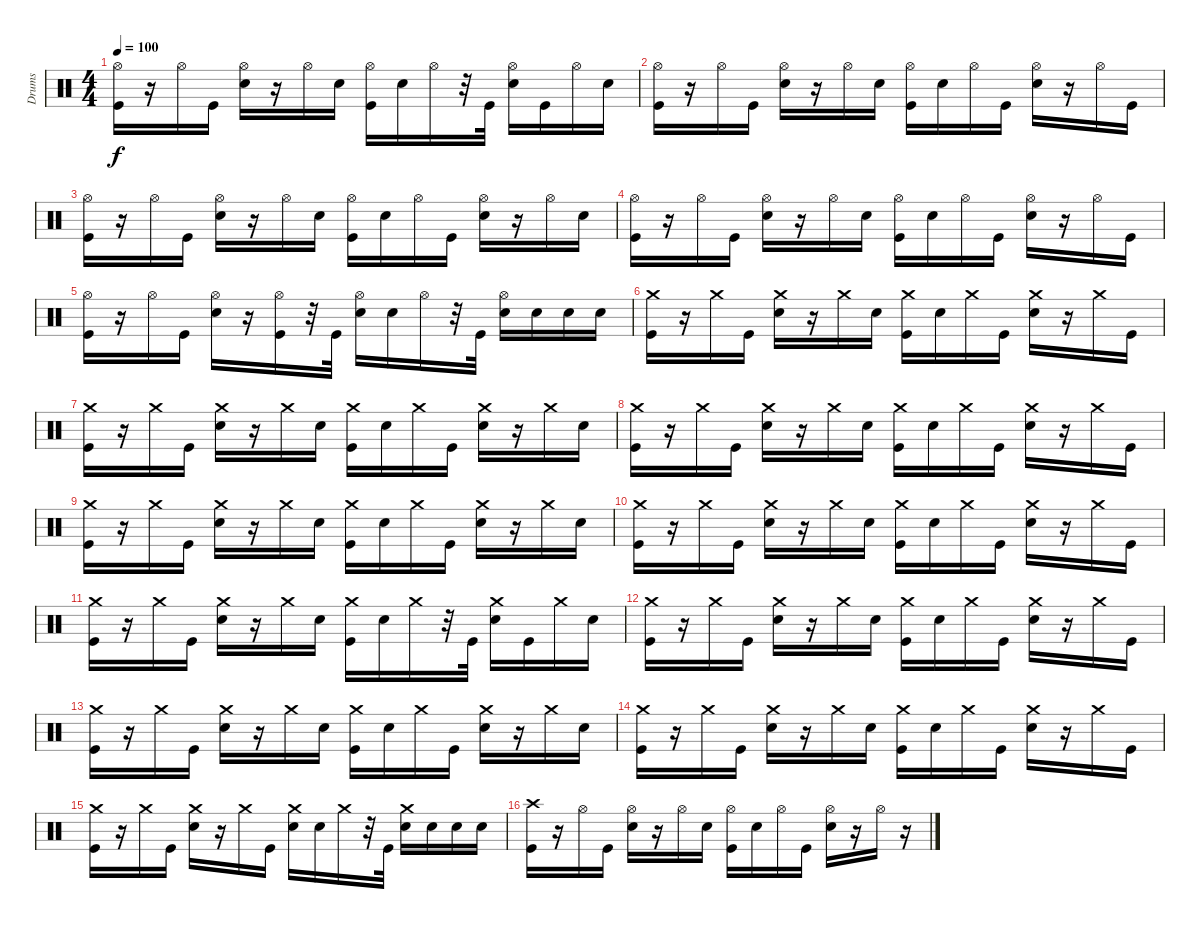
\track ("Drums" "Drums") {instrument percussion}
\staff {score}
\articulation defaults
\ts (4 4)
\tempo 100
\clef neutral
\ks c
("Hi-Hat (open)" "Kick (hit)").16{dy f} r.16 "Hi-Hat (open)".16 "Kick (hit)".16 ("Hi-Hat (open)" "Electric Snare (hit)").16 r.16 "Hi-Hat (open)".16 "Electric Snare (hit)".16 ("Hi-Hat (open)" "Kick (hit)").16 "Electric Snare (hit)".16 "Hi-Hat (open)".16 r.32 "Kick (hit)".32 ("Hi-Hat (open)" "Electric Snare (hit)").16 "Kick (hit)".16 "Hi-Hat (open)".16 "Electric Snare (hit)".16 |
("Hi-Hat (open)" "Kick (hit)").16 r.16 "Hi-Hat (open)".16 "Kick (hit)".16 ("Hi-Hat (open)" "Electric Snare (hit)").16 r.16 "Hi-Hat (open)".16 "Electric Snare (hit)".16 ("Hi-Hat (open)" "Kick (hit)").16 "Electric Snare (hit)".16 "Hi-Hat (open)".16 "Kick (hit)".16 ("Hi-Hat (open)" "Electric Snare (hit)").16 r.16 "Hi-Hat (open)".16 "Kick (hit)".16 |
("Hi-Hat (open)" "Kick (hit)").16 r.16 "Hi-Hat (open)".16 "Kick (hit)".16 ("Hi-Hat (open)" "Electric Snare (hit)").16 r.16 "Hi-Hat (open)".16 "Electric Snare (hit)".16 ("Hi-Hat (open)" "Kick (hit)").16 "Electric Snare (hit)".16 "Hi-Hat (open)".16 "Kick (hit)".16 ("Hi-Hat (open)" "Electric Snare (hit)").16 r.16 "Hi-Hat (open)".16 "Electric Snare (hit)".16 |
("Hi-Hat (open)" "Kick (hit)").16 r.16 "Hi-Hat (open)".16 "Kick (hit)".16 ("Hi-Hat (open)" "Electric Snare (hit)").16 r.16 "Hi-Hat (open)".16 "Electric Snare (hit)".16 ("Hi-Hat (open)" "Kick (hit)").16 "Electric Snare (hit)".16 "Hi-Hat (open)".16 "Kick (hit)".16 ("Hi-Hat (open)" "Electric Snare (hit)").16 r.16 "Hi-Hat (open)".16 "Kick (hit)".16 |
("Hi-Hat (open)" "Kick (hit)").16 r.16 "Hi-Hat (open)".16 "Kick (hit)".16 ("Hi-Hat (open)" "Electric Snare (hit)").16 r.16 ("Hi-Hat (open)" "Kick (hit)").16 r.32 "Kick (hit)".32 ("Hi-Hat (open)" "Electric Snare (hit)").16 "Electric Snare (hit)".16 "Hi-Hat (open)".16 r.32 "Kick (hit)".32 ("Hi-Hat (open)" "Electric Snare (hit)").16 "Electric Snare (hit)".16 "Electric Snare (hit)".16 "Electric Snare (hit)".16 |
("Crash medium (hit)" "Kick (hit)").16 r.16 "Crash medium (hit)".16 "Kick (hit)".16 ("Crash medium (hit)" "Electric Snare (hit)").16 r.16 "Crash medium (hit)".16 "Electric Snare (hit)".16 ("Crash medium (hit)" "Kick (hit)").16 "Electric Snare (hit)".16 "Crash medium (hit)".16 "Kick (hit)".16 ("Crash medium (hit)" "Electric Snare (hit)").16 r.16 "Crash medium (hit)".16 "Kick (hit)".16 |
("Crash medium (hit)" "Kick (hit)").16 r.16 "Crash medium (hit)".16 "Kick (hit)".16 ("Crash medium (hit)" "Electric Snare (hit)").16 r.16 "Crash medium (hit)".16 "Electric Snare (hit)".16 ("Crash medium (hit)" "Kick (hit)").16 "Electric Snare (hit)".16 "Crash medium (hit)".16 "Kick (hit)".16 ("Crash medium (hit)" "Electric Snare (hit)").16 r.16 "Crash medium (hit)".16 "Electric Snare (hit)".16 |
("Crash medium (hit)" "Kick (hit)").16 r.16 "Crash medium (hit)".16 "Kick (hit)".16 ("Crash medium (hit)" "Electric Snare (hit)").16 r.16 "Crash medium (hit)".16 "Electric Snare (hit)".16 ("Crash medium (hit)" "Kick (hit)").16 "Electric Snare (hit)".16 "Crash medium (hit)".16 "Kick (hit)".16 ("Crash medium (hit)" "Electric Snare (hit)").16 r.16 "Crash medium (hit)".16 "Kick (hit)".16 |
("Crash medium (hit)" "Kick (hit)").16 r.16 "Crash medium (hit)".16 "Kick (hit)".16 ("Crash medium (hit)" "Electric Snare (hit)").16 r.16 "Crash medium (hit)".16 "Electric Snare (hit)".16 ("Crash medium (hit)" "Kick (hit)").16 "Electric Snare (hit)".16 "Crash medium (hit)".16 "Kick (hit)".16 ("Crash medium (hit)" "Electric Snare (hit)").16 r.16 "Crash medium (hit)".16 "Electric Snare (hit)".16 |
("Crash medium (hit)" "Kick (hit)").16 r.16 "Crash medium (hit)".16 "Kick (hit)".16 ("Crash medium (hit)" "Electric Snare (hit)").16 r.16 "Crash medium (hit)".16 "Electric Snare (hit)".16 ("Crash medium (hit)" "Kick (hit)").16 "Electric Snare (hit)".16 "Crash medium (hit)".16 "Kick (hit)".16 ("Crash medium (hit)" "Electric Snare (hit)").16 r.16 "Crash medium (hit)".16 "Kick (hit)".16 |
("Crash medium (hit)" "Kick (hit)").16 r.16 "Crash medium (hit)".16 "Kick (hit)".16 ("Crash medium (hit)" "Electric Snare (hit)").16 r.16 "Crash medium (hit)".16 "Electric Snare (hit)".16 ("Crash medium (hit)" "Kick (hit)").16 "Electric Snare (hit)".16 "Crash medium (hit)".16 r.32 "Kick (hit)".32 ("Crash medium (hit)" "Electric Snare (hit)").16 "Kick (hit)".16 "Crash medium (hit)".16 "Electric Snare (hit)".16 |
("Crash medium (hit)" "Kick (hit)").16 r.16 "Crash medium (hit)".16 "Kick (hit)".16 ("Crash medium (hit)" "Electric Snare (hit)").16 r.16 "Crash medium (hit)".16 "Electric Snare (hit)".16 ("Crash medium (hit)" "Kick (hit)").16 "Electric Snare (hit)".16 "Crash medium (hit)".16 "Kick (hit)".16 ("Crash medium (hit)" "Electric Snare (hit)").16 r.16 "Crash medium (hit)".16 "Kick (hit)".16 |
("Crash medium (hit)" "Kick (hit)").16 r.16 "Crash medium (hit)".16 "Kick (hit)".16 ("Crash medium (hit)" "Electric Snare (hit)").16 r.16 "Crash medium (hit)".16 "Electric Snare (hit)".16 ("Crash medium (hit)" "Kick (hit)").16 "Electric Snare (hit)".16 "Crash medium (hit)".16 "Kick (hit)".16 ("Crash medium (hit)" "Electric Snare (hit)").16 r.16 "Crash medium (hit)".16 "Electric Snare (hit)".16 |
("Crash medium (hit)" "Kick (hit)").16 r.16 "Crash medium (hit)".16 "Kick (hit)".16 ("Crash medium (hit)" "Electric Snare (hit)").16 r.16 "Crash medium (hit)".16 "Electric Snare (hit)".16 ("Crash medium (hit)" "Kick (hit)").16 "Electric Snare (hit)".16 "Crash medium (hit)".16 "Kick (hit)".16 ("Crash medium (hit)" "Electric Snare (hit)").16 r.16 "Crash medium (hit)".16 "Kick (hit)".16 |
("Crash medium (hit)" "Kick (hit)").16 r.16 "Crash medium (hit)".16 "Kick (hit)".16 ("Crash medium (hit)" "Electric Snare (hit)").16 r.16 "Crash medium (hit)".16 "Kick (hit)".16 ("Crash medium (hit)" "Electric Snare (hit)").16 "Electric Snare (hit)".16 "Crash medium (hit)".16 r.32 "Kick (hit)".32 ("Crash medium (hit)" "Electric Snare (hit)").16 "Electric Snare (hit)".16 "Electric Snare (hit)".16 "Electric Snare (hit)".16 |
("Crash high (hit)" "Kick (hit)").16 r.16 "Hi-Hat (open)".16 "Kick (hit)".16 ("Hi-Hat (open)" "Electric Snare (hit)").16 r.16 "Hi-Hat (open)".16 "Electric Snare (hit)".16 ("Hi-Hat (open)" "Kick (hit)").16 "Electric Snare (hit)".16 "Hi-Hat (open)".16 "Kick (hit)".16 ("Hi-Hat (open)" "Electric Snare (hit)").16 r.16 "Hi-Hat (open)".16 r.16
